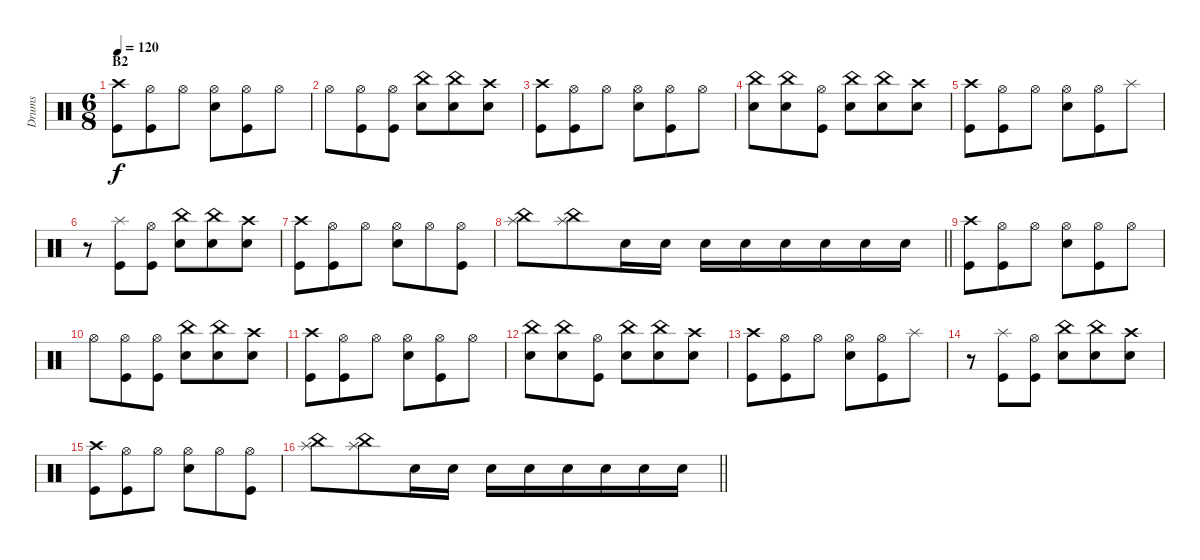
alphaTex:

\track ("Drums" "Drums") {instrument percussion}
\staff {score}
\articulation defaults
\ts (6 8)
\section ("" "B2")
\tempo 120
\clef neutral
\ks c
("Kick (hit)" "Crash high (hit)").8{dy f} ("Kick (hit)" "Hi-Hat (open)").8 "Hi-Hat (open)".8 ("Hi-Hat (open)" "Electric Snare (hit)").8 ("Kick (hit)" "Hi-Hat (open)").8 "Hi-Hat (open)".8 |
"Hi-Hat (open)".8 ("Kick (hit)" "Hi-Hat (open)").8 ("Kick (hit)" "Hi-Hat (open)").8 ("China (hit)" "Electric Snare (hit)").8 ("China (hit)" "Electric Snare (hit)").8 ("Crash high (hit)" "Electric Snare (hit)").8 |
("Kick (hit)" "Crash high (hit)").8 ("Kick (hit)" "Hi-Hat (open)").8 "Hi-Hat (open)".8 ("Hi-Hat (open)" "Electric Snare (hit)").8 ("Kick (hit)" "Hi-Hat (open)").8 "Hi-Hat (open)".8 |
("China (hit)" "Electric Snare (hit)").8 ("China (hit)" "Electric Snare (hit)").8 ("Kick (hit)" "Hi-Hat (open)").8 ("China (hit)" "Electric Snare (hit)").8 ("China (hit)" "Electric Snare (hit)").8 ("Crash high (hit)" "Electric Snare (hit)").8 |
("Kick (hit)" "Crash high (hit)").8 ("Kick (hit)" "Hi-Hat (open)").8 "Hi-Hat (open)".8 ("Hi-Hat (open)" "Electric Snare (hit)").8 ("Kick (hit)" "Hi-Hat (open)").8 "Splash (hit)".8 |
r.8 ("Kick (hit)" "Splash (hit)").8 ("Kick (hit)" "Hi-Hat (open)").8 ("China (hit)" "Electric Snare (hit)").8 ("China (hit)" "Electric Snare (hit)").8 ("Crash high (hit)" "Electric Snare (hit)").8 |
("Kick (hit)" "Crash high (hit)").8 ("Kick (hit)" "Hi-Hat (open)").8 "Hi-Hat (open)".8 ("Hi-Hat (open)" "Electric Snare (hit)").8 "Hi-Hat (open)".8 ("Kick (hit)" "Hi-Hat (open)").8 |
\barLineRight lightlight
("China (hit)" "Splash (hit)").8 ("China (hit)" "Splash (hit)").8 "Electric Snare (hit)".16 "Electric Snare (hit)".16 "Electric Snare (hit)".16 "Electric Snare (hit)".16 "Electric Snare (hit)".16 "Electric Snare (hit)".16 "Electric Snare (hit)".16 "Electric Snare (hit)".16 |
("Kick (hit)" "Crash high (hit)").8 ("Kick (hit)" "Hi-Hat (open)").8 "Hi-Hat (open)".8 ("Hi-Hat (open)" "Electric Snare (hit)").8 ("Kick (hit)" "Hi-Hat (open)").8 "Hi-Hat (open)".8 |
"Hi-Hat (open)".8 ("Kick (hit)" "Hi-Hat (open)").8 ("Kick (hit)" "Hi-Hat (open)").8 ("China (hit)" "Electric Snare (hit)").8 ("China (hit)" "Electric Snare (hit)").8 ("Crash high (hit)" "Electric Snare (hit)").8 |
("Kick (hit)" "Crash high (hit)").8 ("Kick (hit)" "Hi-Hat (open)").8 "Hi-Hat (open)".8 ("Hi-Hat (open)" "Electric Snare (hit)").8 ("Kick (hit)" "Hi-Hat (open)").8 "Hi-Hat (open)".8 |
("China (hit)" "Electric Snare (hit)").8 ("China (hit)" "Electric Snare (hit)").8 ("Kick (hit)" "Hi-Hat (open)").8 ("China (hit)" "Electric Snare (hit)").8 ("China (hit)" "Electric Snare (hit)").8 ("Crash high (hit)" "Electric Snare (hit)").8 |
("Kick (hit)" "Crash high (hit)").8 ("Kick (hit)" "Hi-Hat (open)").8 "Hi-Hat (open)".8 ("Hi-Hat (open)" "Electric Snare (hit)").8 ("Kick (hit)" "Hi-Hat (open)").8 "Splash (hit)".8 |
r.8 ("Kick (hit)" "Splash (hit)").8 ("Kick (hit)" "Hi-Hat (open)").8 ("China (hit)" "Electric Snare (hit)").8 ("China (hit)" "Electric Snare (hit)").8 ("Crash high (hit)" "Electric Snare (hit)").8 |
("Kick (hit)" "Crash high (hit)").8 ("Kick (hit)" "Hi-Hat (open)").8 "Hi-Hat (open)".8 ("Hi-Hat (open)" "Electric Snare (hit)").8 "Hi-Hat (open)".8 ("Kick (hit)" "Hi-Hat (open)").8 |
\barLineRight lightlight
("China (hit)" "Splash (hit)").8 ("China (hit)" "Splash (hit)").8 "Electric Snare (hit)".16 "Electric Snare (hit)".16 "Electric Snare (hit)".16 "Electric Snare (hit)".16 "Electric Snare (hit)".16 "Electric Snare (hit)".16 "Electric Snare (hit)".16 "Electric Snare (hit)".16
